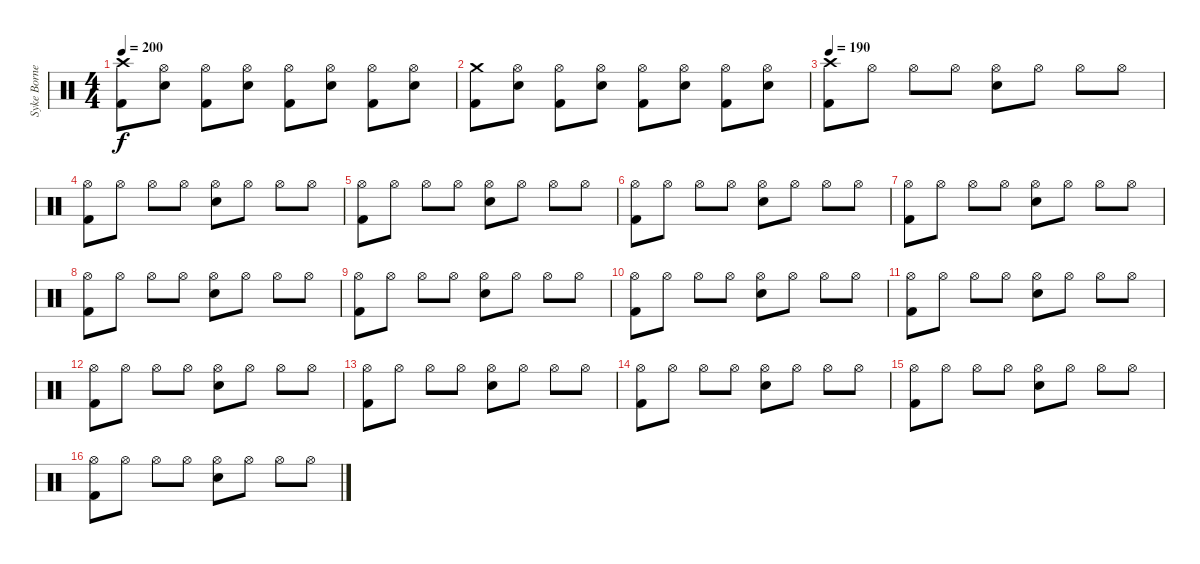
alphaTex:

\track ("Syke Bornetto (Drums)" "Syke Borne") {instrument percussion}
\staff {score}
\articulation defaults
\ts (4 4)
\tempo 200
\clef neutral
\ks c
("Crash high (hit)" "Kick (hit) 2").8{dy f} ("Hi-Hat (open)" "Electric Snare (hit)").8 ("Hi-Hat (open)" "Kick (hit) 2").8 ("Hi-Hat (open)" "Electric Snare (hit)").8 ("Hi-Hat (open)" "Kick (hit) 2").8 ("Hi-Hat (open)" "Electric Snare (hit)").8 ("Hi-Hat (open)" "Kick (hit) 2").8 ("Hi-Hat (open)" "Electric Snare (hit)").8 |
("Crash medium (hit)" "Kick (hit) 2").8 ("Hi-Hat (open)" "Electric Snare (hit)").8 ("Hi-Hat (open)" "Kick (hit) 2").8 ("Hi-Hat (open)" "Electric Snare (hit)").8 ("Hi-Hat (open)" "Kick (hit) 2").8 ("Hi-Hat (open)" "Electric Snare (hit)").8 ("Hi-Hat (open)" "Kick (hit) 2").8 ("Hi-Hat (open)" "Electric Snare (hit)").8 |
\tempo 190
("Crash high (hit)" "Kick (hit) 2").8 "Hi-Hat (open)".8 "Hi-Hat (open)".8 "Hi-Hat (open)".8 ("Hi-Hat (open)" "Electric Snare (hit)").8 "Hi-Hat (open)".8 "Hi-Hat (open)".8 "Hi-Hat (open)".8 |
("Hi-Hat (open)" "Kick (hit) 2").8 "Hi-Hat (open)".8 "Hi-Hat (open)".8 "Hi-Hat (open)".8 ("Hi-Hat (open)" "Electric Snare (hit)").8 "Hi-Hat (open)".8 "Hi-Hat (open)".8 "Hi-Hat (open)".8 |
("Hi-Hat (open)" "Kick (hit) 2").8 "Hi-Hat (open)".8 "Hi-Hat (open)".8 "Hi-Hat (open)".8 ("Hi-Hat (open)" "Electric Snare (hit)").8 "Hi-Hat (open)".8 "Hi-Hat (open)".8 "Hi-Hat (open)".8 |
("Hi-Hat (open)" "Kick (hit) 2").8 "Hi-Hat (open)".8 "Hi-Hat (open)".8 "Hi-Hat (open)".8 ("Hi-Hat (open)" "Electric Snare (hit)").8 "Hi-Hat (open)".8 "Hi-Hat (open)".8 "Hi-Hat (open)".8 |
("Hi-Hat (open)" "Kick (hit) 2").8 "Hi-Hat (open)".8 "Hi-Hat (open)".8 "Hi-Hat (open)".8 ("Hi-Hat (open)" "Electric Snare (hit)").8 "Hi-Hat (open)".8 "Hi-Hat (open)".8 "Hi-Hat (open)".8 |
("Hi-Hat (open)" "Kick (hit) 2").8 "Hi-Hat (open)".8 "Hi-Hat (open)".8 "Hi-Hat (open)".8 ("Hi-Hat (open)" "Electric Snare (hit)").8 "Hi-Hat (open)".8 "Hi-Hat (open)".8 "Hi-Hat (open)".8 |
("Hi-Hat (open)" "Kick (hit) 2").8 "Hi-Hat (open)".8 "Hi-Hat (open)".8 "Hi-Hat (open)".8 ("Hi-Hat (open)" "Electric Snare (hit)").8 "Hi-Hat (open)".8 "Hi-Hat (open)".8 "Hi-Hat (open)".8 |
("Hi-Hat (open)" "Kick (hit) 2").8 "Hi-Hat (open)".8 "Hi-Hat (open)".8 "Hi-Hat (open)".8 ("Hi-Hat (open)" "Electric Snare (hit)").8 "Hi-Hat (open)".8 "Hi-Hat (open)".8 "Hi-Hat (open)".8 |
("Hi-Hat (open)" "Kick (hit) 2").8 "Hi-Hat (open)".8 "Hi-Hat (open)".8 "Hi-Hat (open)".8 ("Hi-Hat (open)" "Electric Snare (hit)").8 "Hi-Hat (open)".8 "Hi-Hat (open)".8 "Hi-Hat (open)".8 |
("Hi-Hat (open)" "Kick (hit) 2").8 "Hi-Hat (open)".8 "Hi-Hat (open)".8 "Hi-Hat (open)".8 ("Hi-Hat (open)" "Electric Snare (hit)").8 "Hi-Hat (open)".8 "Hi-Hat (open)".8 "Hi-Hat (open)".8 |
("Hi-Hat (open)" "Kick (hit) 2").8 "Hi-Hat (open)".8 "Hi-Hat (open)".8 "Hi-Hat (open)".8 ("Hi-Hat (open)" "Electric Snare (hit)").8 "Hi-Hat (open)".8 "Hi-Hat (open)".8 "Hi-Hat (open)".8 |
("Hi-Hat (open)" "Kick (hit) 2").8 "Hi-Hat (open)".8 "Hi-Hat (open)".8 "Hi-Hat (open)".8 ("Hi-Hat (open)" "Electric Snare (hit)").8 "Hi-Hat (open)".8 "Hi-Hat (open)".8 "Hi-Hat (open)".8 |
("Hi-Hat (open)" "Kick (hit) 2").8 "Hi-Hat (open)".8 "Hi-Hat (open)".8 "Hi-Hat (open)".8 ("Hi-Hat (open)" "Electric Snare (hit)").8 "Hi-Hat (open)".8 "Hi-Hat (open)".8 "Hi-Hat (open)".8 |
("Hi-Hat (open)" "Kick (hit) 2").8 "Hi-Hat (open)".8 "Hi-Hat (open)".8 "Hi-Hat (open)".8 ("Hi-Hat (open)" "Electric Snare (hit)").8 "Hi-Hat (open)".8 "Hi-Hat (open)".8 "Hi-Hat (open)".8
